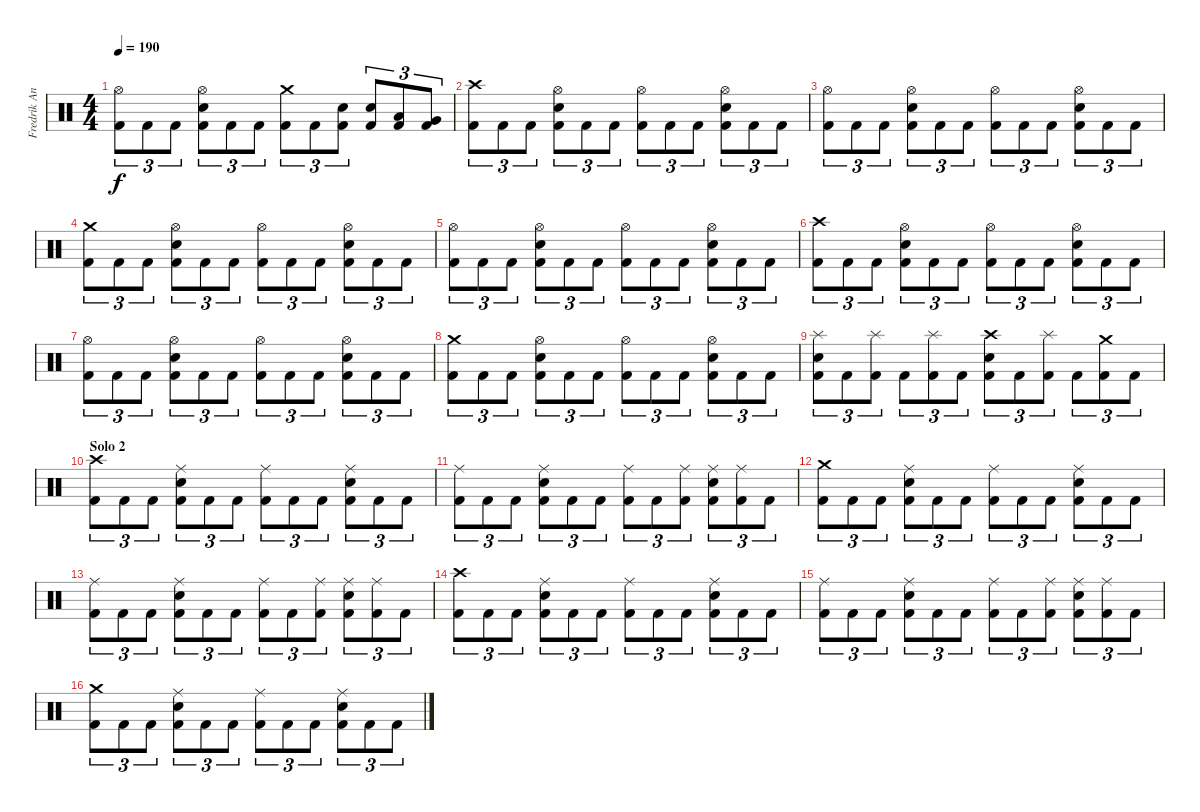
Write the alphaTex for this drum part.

\track ("Fredrik Andersson" "Fredrik An") {instrument percussion}
\staff {score}
\articulation defaults
\ts (4 4)
\tempo 190
\clef neutral
\ks c
("Hi-Hat (open)" "Kick (hit) 2").8{tu (3 2) dy f} "Kick (hit) 2".8{tu (3 2)} "Kick (hit) 2".8{tu (3 2)} ("Hi-Hat (open)" "Electric Snare (hit)" "Kick (hit) 2").8{tu (3 2)} "Kick (hit) 2".8{tu (3 2)} "Kick (hit) 2".8{tu (3 2)} ("Crash medium (hit)" "Kick (hit) 2").8{tu (3 2)} "Kick (hit) 2".8{tu (3 2)} ("Electric Snare (hit)" "Kick (hit) 2").8{tu (3 2)} ("Electric Snare (hit)" "Kick (hit) 2").8{tu (3 2)} ("Low Tom (hit)" "Kick (hit) 2").8{tu (3 2)} ("Very Low Tom (hit)" "Kick (hit) 2").8{tu (3 2)} |
\section ("" "")
("Crash high (hit)" "Kick (hit) 2").8{tu (3 2)} "Kick (hit) 2".8{tu (3 2)} "Kick (hit) 2".8{tu (3 2)} ("Hi-Hat (open)" "Electric Snare (hit)" "Kick (hit) 2").8{tu (3 2)} "Kick (hit) 2".8{tu (3 2)} "Kick (hit) 2".8{tu (3 2)} ("Hi-Hat (open)" "Kick (hit) 2").8{tu (3 2)} "Kick (hit) 2".8{tu (3 2)} "Kick (hit) 2".8{tu (3 2)} ("Hi-Hat (open)" "Electric Snare (hit)" "Kick (hit) 2").8{tu (3 2)} "Kick (hit) 2".8{tu (3 2)} "Kick (hit) 2".8{tu (3 2)} |
("Hi-Hat (open)" "Kick (hit) 2").8{tu (3 2)} "Kick (hit) 2".8{tu (3 2)} "Kick (hit) 2".8{tu (3 2)} ("Hi-Hat (open)" "Electric Snare (hit)" "Kick (hit) 2").8{tu (3 2)} "Kick (hit) 2".8{tu (3 2)} "Kick (hit) 2".8{tu (3 2)} ("Hi-Hat (open)" "Kick (hit) 2").8{tu (3 2)} "Kick (hit) 2".8{tu (3 2)} "Kick (hit) 2".8{tu (3 2)} ("Hi-Hat (open)" "Electric Snare (hit)" "Kick (hit) 2").8{tu (3 2)} "Kick (hit) 2".8{tu (3 2)} "Kick (hit) 2".8{tu (3 2)} |
("Crash medium (hit)" "Kick (hit) 2").8{tu (3 2)} "Kick (hit) 2".8{tu (3 2)} "Kick (hit) 2".8{tu (3 2)} ("Hi-Hat (open)" "Electric Snare (hit)" "Kick (hit) 2").8{tu (3 2)} "Kick (hit) 2".8{tu (3 2)} "Kick (hit) 2".8{tu (3 2)} ("Hi-Hat (open)" "Kick (hit) 2").8{tu (3 2)} "Kick (hit) 2".8{tu (3 2)} "Kick (hit) 2".8{tu (3 2)} ("Hi-Hat (open)" "Electric Snare (hit)" "Kick (hit) 2").8{tu (3 2)} "Kick (hit) 2".8{tu (3 2)} "Kick (hit) 2".8{tu (3 2)} |
("Hi-Hat (open)" "Kick (hit) 2").8{tu (3 2)} "Kick (hit) 2".8{tu (3 2)} "Kick (hit) 2".8{tu (3 2)} ("Hi-Hat (open)" "Electric Snare (hit)" "Kick (hit) 2").8{tu (3 2)} "Kick (hit) 2".8{tu (3 2)} "Kick (hit) 2".8{tu (3 2)} ("Hi-Hat (open)" "Kick (hit) 2").8{tu (3 2)} "Kick (hit) 2".8{tu (3 2)} "Kick (hit) 2".8{tu (3 2)} ("Hi-Hat (open)" "Electric Snare (hit)" "Kick (hit) 2").8{tu (3 2)} "Kick (hit) 2".8{tu (3 2)} "Kick (hit) 2".8{tu (3 2)} |
("Crash high (hit)" "Kick (hit) 2").8{tu (3 2)} "Kick (hit) 2".8{tu (3 2)} "Kick (hit) 2".8{tu (3 2)} ("Hi-Hat (open)" "Electric Snare (hit)" "Kick (hit) 2").8{tu (3 2)} "Kick (hit) 2".8{tu (3 2)} "Kick (hit) 2".8{tu (3 2)} ("Hi-Hat (open)" "Kick (hit) 2").8{tu (3 2)} "Kick (hit) 2".8{tu (3 2)} "Kick (hit) 2".8{tu (3 2)} ("Hi-Hat (open)" "Electric Snare (hit)" "Kick (hit) 2").8{tu (3 2)} "Kick (hit) 2".8{tu (3 2)} "Kick (hit) 2".8{tu (3 2)} |
("Hi-Hat (open)" "Kick (hit) 2").8{tu (3 2)} "Kick (hit) 2".8{tu (3 2)} "Kick (hit) 2".8{tu (3 2)} ("Hi-Hat (open)" "Electric Snare (hit)" "Kick (hit) 2").8{tu (3 2)} "Kick (hit) 2".8{tu (3 2)} "Kick (hit) 2".8{tu (3 2)} ("Hi-Hat (open)" "Kick (hit) 2").8{tu (3 2)} "Kick (hit) 2".8{tu (3 2)} "Kick (hit) 2".8{tu (3 2)} ("Hi-Hat (open)" "Electric Snare (hit)" "Kick (hit) 2").8{tu (3 2)} "Kick (hit) 2".8{tu (3 2)} "Kick (hit) 2".8{tu (3 2)} |
("Crash medium (hit)" "Kick (hit) 2").8{tu (3 2)} "Kick (hit) 2".8{tu (3 2)} "Kick (hit) 2".8{tu (3 2)} ("Hi-Hat (open)" "Electric Snare (hit)" "Kick (hit) 2").8{tu (3 2)} "Kick (hit) 2".8{tu (3 2)} "Kick (hit) 2".8{tu (3 2)} ("Hi-Hat (open)" "Kick (hit) 2").8{tu (3 2)} "Kick (hit) 2".8{tu (3 2)} "Kick (hit) 2".8{tu (3 2)} ("Hi-Hat (open)" "Electric Snare (hit)" "Kick (hit) 2").8{tu (3 2)} "Kick (hit) 2".8{tu (3 2)} "Kick (hit) 2".8{tu (3 2)} |
("Splash (hit)" "Electric Snare (hit)" "Kick (hit) 2").8{tu (3 2)} "Kick (hit) 2".8{tu (3 2)} ("Splash (hit)" "Kick (hit) 2").8{tu (3 2)} "Kick (hit) 2".8{tu (3 2)} ("Splash (hit)" "Kick (hit) 2").8{tu (3 2)} "Kick (hit) 2".8{tu (3 2)} ("Crash high (hit)" "Electric Snare (hit)" "Kick (hit) 2").8{tu (3 2)} "Kick (hit) 2".8{tu (3 2)} ("Splash (hit)" "Kick (hit) 2").8{tu (3 2)} "Kick (hit) 2".8{tu (3 2)} ("Crash medium (hit)" "Kick (hit) 2").8{tu (3 2)} "Kick (hit) 2".8{tu (3 2)} |
\section ("" "Solo 2")
("Crash high (hit)" "Kick (hit) 2").8{tu (3 2)} "Kick (hit) 2".8{tu (3 2)} "Kick (hit) 2".8{tu (3 2)} ("Ride (middle)" "Electric Snare (hit)" "Kick (hit) 2").8{tu (3 2)} "Kick (hit) 2".8{tu (3 2)} "Kick (hit) 2".8{tu (3 2)} ("Ride (middle)" "Kick (hit) 2").8{tu (3 2)} "Kick (hit) 2".8{tu (3 2)} "Kick (hit) 2".8{tu (3 2)} ("Ride (middle)" "Electric Snare (hit)" "Kick (hit) 2").8{tu (3 2)} "Kick (hit) 2".8{tu (3 2)} "Kick (hit) 2".8{tu (3 2)} |
("Ride (middle)" "Kick (hit) 2").8{tu (3 2)} "Kick (hit) 2".8{tu (3 2)} "Kick (hit) 2".8{tu (3 2)} ("Ride (middle)" "Electric Snare (hit)" "Kick (hit) 2").8{tu (3 2)} "Kick (hit) 2".8{tu (3 2)} "Kick (hit) 2".8{tu (3 2)} ("Ride (middle)" "Kick (hit) 2").8{tu (3 2)} "Kick (hit) 2".8{tu (3 2)} ("Ride (middle)" "Kick (hit) 2").8{tu (3 2)} ("Ride (middle)" "Electric Snare (hit)" "Kick (hit) 2").8{tu (3 2)} ("Ride (middle)" "Kick (hit) 2").8{tu (3 2)} "Kick (hit) 2".8{tu (3 2)} |
("Crash medium (hit)" "Kick (hit) 2").8{tu (3 2)} "Kick (hit) 2".8{tu (3 2)} "Kick (hit) 2".8{tu (3 2)} ("Ride (middle)" "Electric Snare (hit)" "Kick (hit) 2").8{tu (3 2)} "Kick (hit) 2".8{tu (3 2)} "Kick (hit) 2".8{tu (3 2)} ("Ride (middle)" "Kick (hit) 2").8{tu (3 2)} "Kick (hit) 2".8{tu (3 2)} "Kick (hit) 2".8{tu (3 2)} ("Ride (middle)" "Electric Snare (hit)" "Kick (hit) 2").8{tu (3 2)} "Kick (hit) 2".8{tu (3 2)} "Kick (hit) 2".8{tu (3 2)} |
("Ride (middle)" "Kick (hit) 2").8{tu (3 2)} "Kick (hit) 2".8{tu (3 2)} "Kick (hit) 2".8{tu (3 2)} ("Ride (middle)" "Electric Snare (hit)" "Kick (hit) 2").8{tu (3 2)} "Kick (hit) 2".8{tu (3 2)} "Kick (hit) 2".8{tu (3 2)} ("Ride (middle)" "Kick (hit) 2").8{tu (3 2)} "Kick (hit) 2".8{tu (3 2)} ("Ride (middle)" "Kick (hit) 2").8{tu (3 2)} ("Ride (middle)" "Electric Snare (hit)" "Kick (hit) 2").8{tu (3 2)} ("Ride (middle)" "Kick (hit) 2").8{tu (3 2)} "Kick (hit) 2".8{tu (3 2)} |
("Crash high (hit)" "Kick (hit) 2").8{tu (3 2)} "Kick (hit) 2".8{tu (3 2)} "Kick (hit) 2".8{tu (3 2)} ("Ride (middle)" "Electric Snare (hit)" "Kick (hit) 2").8{tu (3 2)} "Kick (hit) 2".8{tu (3 2)} "Kick (hit) 2".8{tu (3 2)} ("Ride (middle)" "Kick (hit) 2").8{tu (3 2)} "Kick (hit) 2".8{tu (3 2)} "Kick (hit) 2".8{tu (3 2)} ("Ride (middle)" "Electric Snare (hit)" "Kick (hit) 2").8{tu (3 2)} "Kick (hit) 2".8{tu (3 2)} "Kick (hit) 2".8{tu (3 2)} |
("Ride (middle)" "Kick (hit) 2").8{tu (3 2)} "Kick (hit) 2".8{tu (3 2)} "Kick (hit) 2".8{tu (3 2)} ("Ride (middle)" "Electric Snare (hit)" "Kick (hit) 2").8{tu (3 2)} "Kick (hit) 2".8{tu (3 2)} "Kick (hit) 2".8{tu (3 2)} ("Ride (middle)" "Kick (hit) 2").8{tu (3 2)} "Kick (hit) 2".8{tu (3 2)} ("Ride (middle)" "Kick (hit) 2").8{tu (3 2)} ("Ride (middle)" "Electric Snare (hit)" "Kick (hit) 2").8{tu (3 2)} ("Ride (middle)" "Kick (hit) 2").8{tu (3 2)} "Kick (hit) 2".8{tu (3 2)} |
("Crash medium (hit)" "Kick (hit) 2").8{tu (3 2)} "Kick (hit) 2".8{tu (3 2)} "Kick (hit) 2".8{tu (3 2)} ("Ride (middle)" "Electric Snare (hit)" "Kick (hit) 2").8{tu (3 2)} "Kick (hit) 2".8{tu (3 2)} "Kick (hit) 2".8{tu (3 2)} ("Ride (middle)" "Kick (hit) 2").8{tu (3 2)} "Kick (hit) 2".8{tu (3 2)} "Kick (hit) 2".8{tu (3 2)} ("Ride (middle)" "Electric Snare (hit)" "Kick (hit) 2").8{tu (3 2)} "Kick (hit) 2".8{tu (3 2)} "Kick (hit) 2".8{tu (3 2)}
